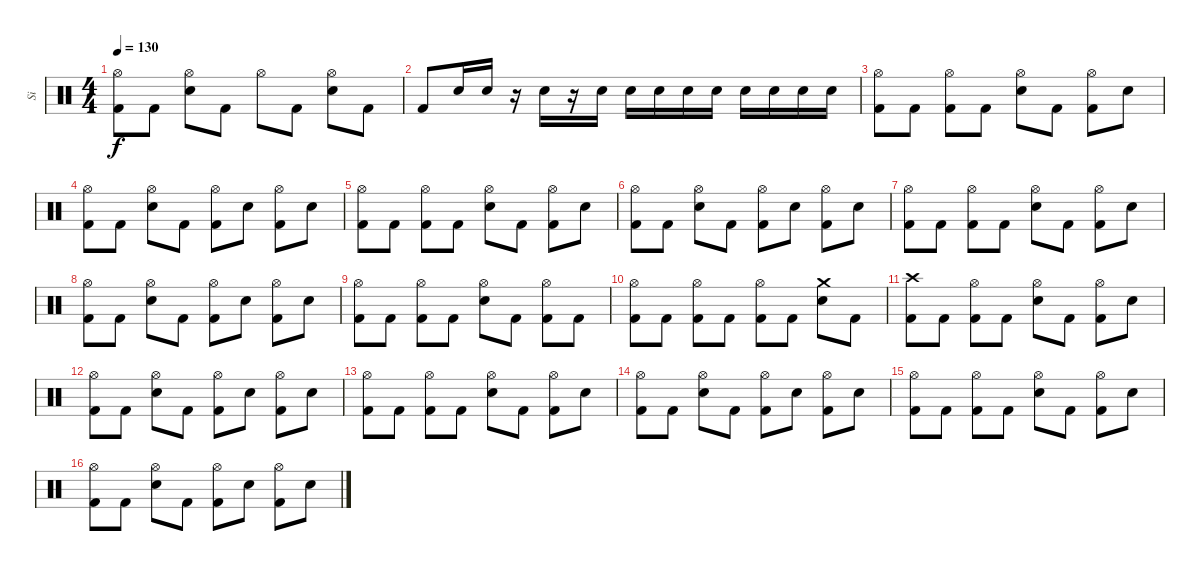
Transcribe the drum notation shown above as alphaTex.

\track ("Si" "Si") {instrument percussion}
\staff {score}
\articulation defaults
\ts (4 4)
\tempo 130
\clef neutral
\ks c
("Hi-Hat (open)" "Kick (hit) 2").8{dy f} "Kick (hit) 2".8 ("Hi-Hat (open)" "Electric Snare (hit)").8 "Kick (hit) 2".8 "Hi-Hat (open)".8 "Kick (hit) 2".8 ("Hi-Hat (open)" "Electric Snare (hit)").8 "Kick (hit) 2".8 |
"Kick (hit) 2".8 "Electric Snare (hit)".16 "Electric Snare (hit)".16 r.16 "Electric Snare (hit)".16 r.16 "Electric Snare (hit)".16 "Electric Snare (hit)".16 "Electric Snare (hit)".16 "Electric Snare (hit)".16 "Electric Snare (hit)".16 "Electric Snare (hit)".16 "Electric Snare (hit)".16 "Electric Snare (hit)".16 "Electric Snare (hit)".16 |
("Hi-Hat (open)" "Kick (hit) 2").8 "Kick (hit) 2".8 ("Hi-Hat (open)" "Kick (hit) 2").8 "Kick (hit) 2".8 ("Hi-Hat (open)" "Electric Snare (hit)").8 "Kick (hit) 2".8 ("Hi-Hat (open)" "Kick (hit) 2").8 "Electric Snare (hit)".8 |
("Hi-Hat (open)" "Kick (hit) 2").8 "Kick (hit) 2".8 ("Hi-Hat (open)" "Electric Snare (hit)").8 "Kick (hit) 2".8 ("Hi-Hat (open)" "Kick (hit) 2").8 "Electric Snare (hit)".8 ("Hi-Hat (open)" "Kick (hit) 2").8 "Electric Snare (hit)".8 |
("Hi-Hat (open)" "Kick (hit) 2").8 "Kick (hit) 2".8 ("Hi-Hat (open)" "Kick (hit) 2").8 "Kick (hit) 2".8 ("Hi-Hat (open)" "Electric Snare (hit)").8 "Kick (hit) 2".8 ("Hi-Hat (open)" "Kick (hit) 2").8 "Electric Snare (hit)".8 |
("Hi-Hat (open)" "Kick (hit) 2").8 "Kick (hit) 2".8 ("Hi-Hat (open)" "Electric Snare (hit)").8 "Kick (hit) 2".8 ("Hi-Hat (open)" "Kick (hit) 2").8 "Electric Snare (hit)".8 ("Hi-Hat (open)" "Kick (hit) 2").8 "Electric Snare (hit)".8 |
("Hi-Hat (open)" "Kick (hit) 2").8 "Kick (hit) 2".8 ("Hi-Hat (open)" "Kick (hit) 2").8 "Kick (hit) 2".8 ("Hi-Hat (open)" "Electric Snare (hit)").8 "Kick (hit) 2".8 ("Hi-Hat (open)" "Kick (hit) 2").8 "Electric Snare (hit)".8 |
("Hi-Hat (open)" "Kick (hit) 2").8 "Kick (hit) 2".8 ("Hi-Hat (open)" "Electric Snare (hit)").8 "Kick (hit) 2".8 ("Hi-Hat (open)" "Kick (hit) 2").8 "Electric Snare (hit)".8 ("Hi-Hat (open)" "Kick (hit) 2").8 "Electric Snare (hit)".8 |
("Hi-Hat (open)" "Kick (hit) 2").8 "Kick (hit) 2".8 ("Hi-Hat (open)" "Kick (hit) 2").8 "Kick (hit) 2".8 ("Hi-Hat (open)" "Electric Snare (hit)").8 "Kick (hit) 2".8 ("Hi-Hat (open)" "Kick (hit) 2").8 "Kick (hit) 2".8 |
("Hi-Hat (open)" "Kick (hit) 2").8 "Kick (hit) 2".8 ("Hi-Hat (open)" "Kick (hit) 2").8 "Kick (hit) 2".8 ("Hi-Hat (open)" "Kick (hit) 2").8 "Kick (hit) 2".8 ("Crash medium (hit)" "Electric Snare (hit)").8 "Kick (hit) 2".8 |
("Crash high (hit)" "Kick (hit) 2").8 "Kick (hit) 2".8 ("Hi-Hat (open)" "Kick (hit) 2").8 "Kick (hit) 2".8 ("Hi-Hat (open)" "Electric Snare (hit)").8 "Kick (hit) 2".8 ("Hi-Hat (open)" "Kick (hit) 2").8 "Electric Snare (hit)".8 |
("Hi-Hat (open)" "Kick (hit) 2").8 "Kick (hit) 2".8 ("Hi-Hat (open)" "Electric Snare (hit)").8 "Kick (hit) 2".8 ("Hi-Hat (open)" "Kick (hit) 2").8 "Electric Snare (hit)".8 ("Hi-Hat (open)" "Kick (hit) 2").8 "Electric Snare (hit)".8 |
("Hi-Hat (open)" "Kick (hit) 2").8 "Kick (hit) 2".8 ("Hi-Hat (open)" "Kick (hit) 2").8 "Kick (hit) 2".8 ("Hi-Hat (open)" "Electric Snare (hit)").8 "Kick (hit) 2".8 ("Hi-Hat (open)" "Kick (hit) 2").8 "Electric Snare (hit)".8 |
("Hi-Hat (open)" "Kick (hit) 2").8 "Kick (hit) 2".8 ("Hi-Hat (open)" "Electric Snare (hit)").8 "Kick (hit) 2".8 ("Hi-Hat (open)" "Kick (hit) 2").8 "Electric Snare (hit)".8 ("Hi-Hat (open)" "Kick (hit) 2").8 "Electric Snare (hit)".8 |
("Hi-Hat (open)" "Kick (hit) 2").8 "Kick (hit) 2".8 ("Hi-Hat (open)" "Kick (hit) 2").8 "Kick (hit) 2".8 ("Hi-Hat (open)" "Electric Snare (hit)").8 "Kick (hit) 2".8 ("Hi-Hat (open)" "Kick (hit) 2").8 "Electric Snare (hit)".8 |
("Hi-Hat (open)" "Kick (hit) 2").8 "Kick (hit) 2".8 ("Hi-Hat (open)" "Electric Snare (hit)").8 "Kick (hit) 2".8 ("Hi-Hat (open)" "Kick (hit) 2").8 "Electric Snare (hit)".8 ("Hi-Hat (open)" "Kick (hit) 2").8 "Electric Snare (hit)".8
